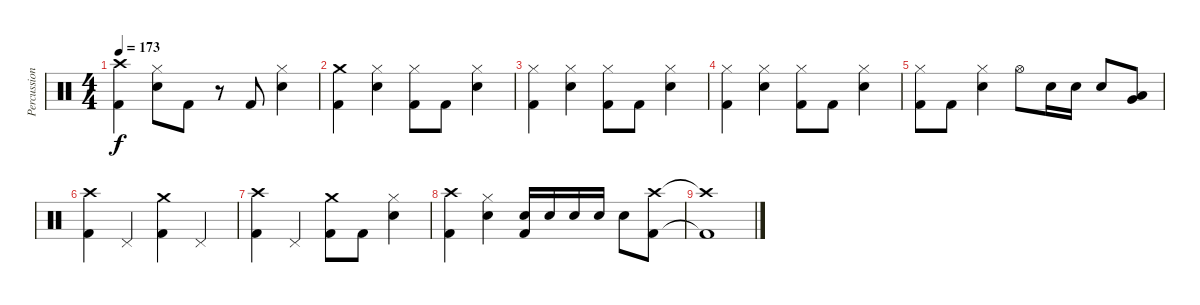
\track ("Percussion" "Percussion") {instrument percussion}
\staff {score}
\articulation defaults
\ts (4 4)
\tempo 173
\clef neutral
\ks c
("Crash high (hit)" "Kick (hit) 2").4{dy f} ("Hi-Hat (closed)" "Electric Snare (hit)").8 "Kick (hit) 2".8 r.8 "Kick (hit) 2".8 ("Hi-Hat (closed)" "Electric Snare (hit)").4 |
("Crash medium (hit)" "Kick (hit) 2").4 ("Hi-Hat (closed)" "Electric Snare (hit)").4 ("Hi-Hat (closed)" "Kick (hit) 2").8 "Kick (hit) 2".8 ("Hi-Hat (closed)" "Electric Snare (hit)").4 |
("Hi-Hat (closed)" "Kick (hit) 2").4 ("Hi-Hat (closed)" "Electric Snare (hit)").4 ("Hi-Hat (closed)" "Kick (hit) 2").8 "Kick (hit) 2".8 ("Hi-Hat (closed)" "Electric Snare (hit)").4 |
("Hi-Hat (closed)" "Kick (hit) 2").4 ("Hi-Hat (closed)" "Electric Snare (hit)").4 ("Hi-Hat (closed)" "Kick (hit) 2").8 "Kick (hit) 2".8 ("Hi-Hat (closed)" "Electric Snare (hit)").4 |
("Hi-Hat (closed)" "Kick (hit) 2").8 "Kick (hit) 2".8 ("Hi-Hat (closed)" "Electric Snare (hit)").4 "Hi-Hat (open)".8 "Electric Snare (hit)".16 "Electric Snare (hit)".16 "Electric Snare (hit)".8 ("Low Tom (hit)" "Very Low Tom (hit)").8 |
("Crash high (hit)" "Kick (hit) 2").4 "Pedal Hi-Hat (hit)".4 ("Crash medium (hit)" "Kick (hit) 2").4 "Pedal Hi-Hat (hit)".4 |
("Crash high (hit)" "Kick (hit) 2").4 "Pedal Hi-Hat (hit)".4 ("Crash medium (hit)" "Kick (hit) 2").8 "Kick (hit) 2".8 ("Hi-Hat (closed)" "Electric Snare (hit)").4 |
("Crash high (hit)" "Kick (hit) 2").4 ("Hi-Hat (closed)" "Electric Snare (hit)").4 ("Electric Snare (hit)" "Kick (hit) 2").16 "Electric Snare (hit)".16 "Electric Snare (hit)".16 "Electric Snare (hit)".16 "Electric Snare (hit)".8 ("Crash high (hit)" "Kick (hit) 2").8 |
("Crash high (hit)"{t} "Kick (hit) 2"{t}).1
